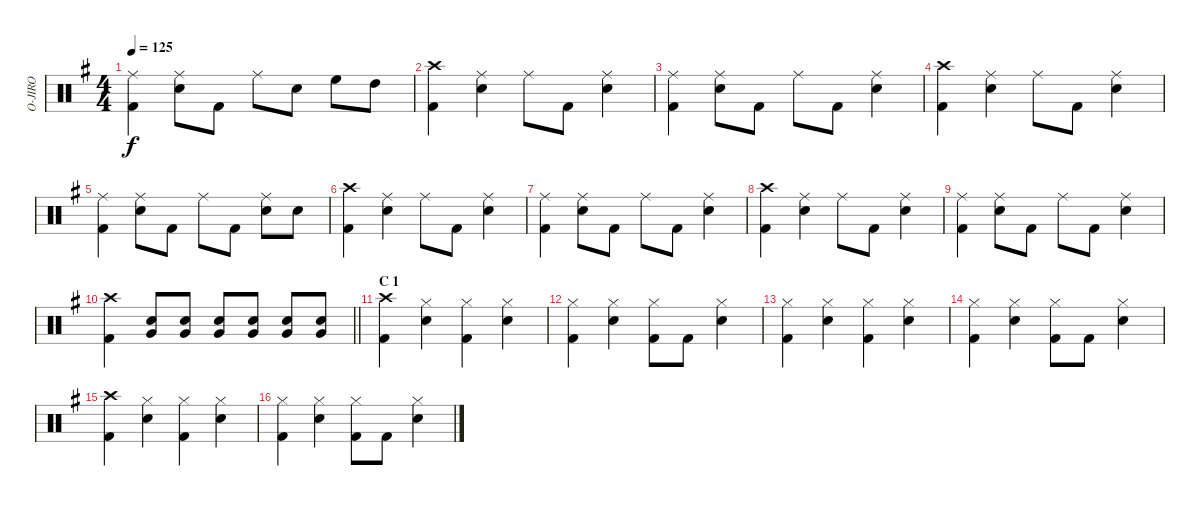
\track ("O-JIRO" "O-JIRO") {instrument percussion}
\staff {score}
\articulation defaults
\ts (4 4)
\tempo 125
\clef neutral
\ks g
("Ride (middle)" "Kick (hit) 2").4{dy f} ("Ride (middle)" "Snare (hit) 2").8 "Kick (hit) 2".8 "Ride (middle)".8 "Snare (hit) 2".8 "High Floor Tom (hit)".8 "High Tom (hit)".8 |
("Crash high (hit)" "Kick (hit) 2").4 ("Ride (middle)" "Snare (hit) 2").4 "Ride (middle)".8 "Kick (hit) 2".8 ("Ride (middle)" "Snare (hit) 2").4 |
("Ride (middle)" "Kick (hit) 2").4 ("Ride (middle)" "Snare (hit) 2").8 "Kick (hit) 2".8 "Ride (middle)".8 "Kick (hit) 2".8 ("Ride (middle)" "Snare (hit) 2").4 |
("Crash high (hit)" "Kick (hit) 2").4 ("Ride (middle)" "Snare (hit) 2").4 "Ride (middle)".8 "Kick (hit) 2".8 ("Ride (middle)" "Snare (hit) 2").4 |
("Ride (middle)" "Kick (hit) 2").4 ("Ride (middle)" "Snare (hit) 2").8 "Kick (hit) 2".8 "Ride (middle)".8 "Kick (hit) 2".8 ("Ride (middle)" "Snare (hit) 2").8 "Snare (hit) 2".8 |
("Crash high (hit)" "Kick (hit) 2").4 ("Ride (middle)" "Snare (hit) 2").4 "Ride (middle)".8 "Kick (hit) 2".8 ("Ride (middle)" "Snare (hit) 2").4 |
("Ride (middle)" "Kick (hit) 2").4 ("Ride (middle)" "Snare (hit) 2").8 "Kick (hit) 2".8 "Ride (middle)".8 "Kick (hit) 2".8 ("Ride (middle)" "Snare (hit) 2").4 |
("Crash high (hit)" "Kick (hit) 2").4 ("Ride (middle)" "Snare (hit) 2").4 "Ride (middle)".8 "Kick (hit) 2".8 ("Ride (middle)" "Snare (hit) 2").4 |
("Ride (middle)" "Kick (hit) 2").4 ("Ride (middle)" "Snare (hit) 2").8 "Kick (hit) 2".8 "Ride (middle)".8 "Kick (hit) 2".8 ("Ride (middle)" "Snare (hit) 2").4 |
\barLineRight lightlight
("Crash high (hit)" "Kick (hit) 2").4 ("Very Low Tom (hit)" "Snare (hit) 2").8 ("Very Low Tom (hit)" "Snare (hit) 2").8 ("Very Low Tom (hit)" "Snare (hit) 2").8 ("Very Low Tom (hit)" "Snare (hit) 2").8 ("Very Low Tom (hit)" "Snare (hit) 2").8 ("Very Low Tom (hit)" "Snare (hit) 2").8 |
\section ("" "C 1")
("Crash high (hit)" "Kick (hit) 2").4 ("Hi-Hat (closed)" "Snare (hit) 2").4 ("Hi-Hat (closed)" "Kick (hit) 2").4 ("Hi-Hat (closed)" "Snare (hit) 2").4 |
("Hi-Hat (closed)" "Kick (hit) 2").4 ("Hi-Hat (closed)" "Snare (hit) 2").4 ("Hi-Hat (closed)" "Kick (hit) 2").8 "Kick (hit) 2".8 ("Hi-Hat (closed)" "Snare (hit) 2").4 |
("Hi-Hat (closed)" "Kick (hit) 2").4 ("Hi-Hat (closed)" "Snare (hit) 2").4 ("Hi-Hat (closed)" "Kick (hit) 2").4 ("Hi-Hat (closed)" "Snare (hit) 2").4 |
("Hi-Hat (closed)" "Kick (hit) 2").4 ("Hi-Hat (closed)" "Snare (hit) 2").4 ("Hi-Hat (closed)" "Kick (hit) 2").8 "Kick (hit) 2".8 ("Hi-Hat (closed)" "Snare (hit) 2").4 |
("Crash high (hit)" "Kick (hit) 2").4 ("Hi-Hat (closed)" "Snare (hit) 2").4 ("Hi-Hat (closed)" "Kick (hit) 2").4 ("Hi-Hat (closed)" "Snare (hit) 2").4 |
("Hi-Hat (closed)" "Kick (hit) 2").4 ("Hi-Hat (closed)" "Snare (hit) 2").4 ("Hi-Hat (closed)" "Kick (hit) 2").8 "Kick (hit) 2".8 ("Hi-Hat (closed)" "Snare (hit) 2").4
